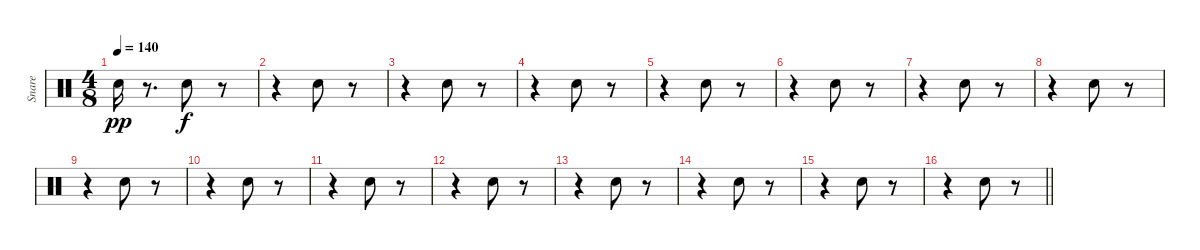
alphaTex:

\track ("Snare" "Snare") {instrument percussion}
\staff {score}
\articulation defaults
\ts (4 8)
\tempo 140
\clef neutral
\ks c "Snare (hit) 2".16{dy pp}
r.8{d} "Snare (hit) 2".8{dy f} r.8 |
r.4 "Snare (hit) 2".8 r.8 |
r.4 "Snare (hit) 2".8 r.8 |
r.4 "Snare (hit) 2".8 r.8 |
r.4 "Snare (hit) 2".8 r.8 |
r.4 "Snare (hit) 2".8 r.8 |
r.4 "Snare (hit) 2".8 r.8 |
r.4 "Snare (hit) 2".8 r.8 |
r.4 "Snare (hit) 2".8 r.8 |
r.4 "Snare (hit) 2".8 r.8 |
r.4 "Snare (hit) 2".8 r.8 |
r.4 "Snare (hit) 2".8 r.8 |
r.4 "Snare (hit) 2".8 r.8 |
r.4 "Snare (hit) 2".8 r.8 |
r.4 "Snare (hit) 2".8 r.8 |
\barLineRight lightlight
r.4 "Snare (hit) 2".8 r.8
